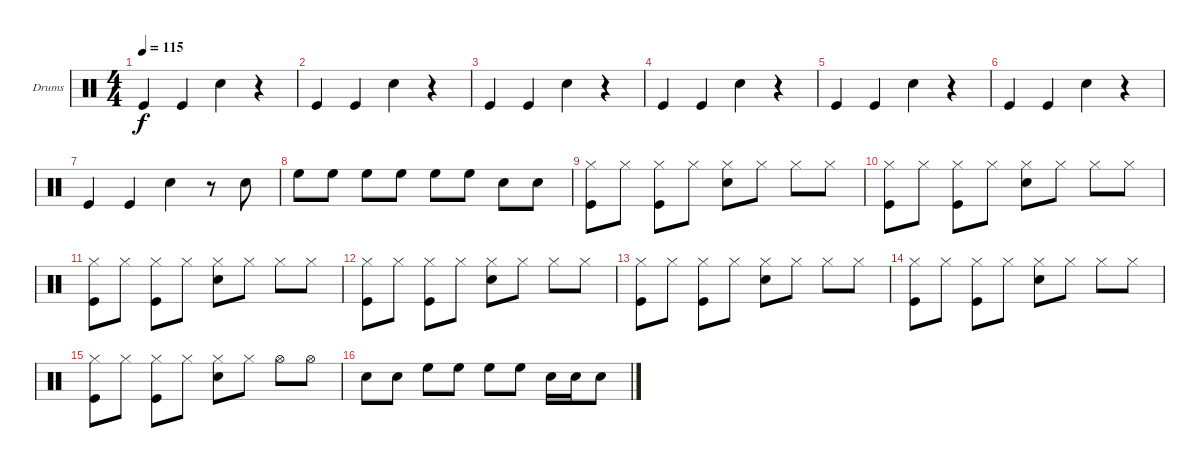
\bracketExtendMode groupsimilarinstruments
\firstSystemTrackNameOrientation horizontal
\otherSystemsTrackNameOrientation horizontal
\track ("Drumkit" "Drums") {instrument percussion}
\staff {score}
\articulation defaults
\ts (4 4)
\tempo 115
\clef neutral
\ks c "Kick (hit)".4{dy f} "Kick (hit)".4 "Snare (hit) 2".4
r.4 |
"Kick (hit)".4 "Kick (hit)".4 "Snare (hit) 2".4 r.4 |
"Kick (hit)".4 "Kick (hit)".4 "Snare (hit) 2".4 r.4 |
"Kick (hit)".4 "Kick (hit)".4 "Snare (hit) 2".4 r.4 |
"Kick (hit)".4 "Kick (hit)".4 "Snare (hit) 2".4 r.4 |
"Kick (hit)".4 "Kick (hit)".4 "Snare (hit) 2".4 r.4 |
"Kick (hit)".4 "Kick (hit)".4 "Snare (hit) 2".4 r.8 "Snare (hit) 2".8 |
"High Floor Tom (hit)".8 "High Floor Tom (hit)".8 "High Floor Tom (hit)".8 "High Floor Tom (hit)".8 "High Floor Tom (hit)".8 "High Floor Tom (hit)".8 "Snare (hit) 2".8 "Snare (hit) 2".8 |
("Hi-Hat (closed)" "Kick (hit)").8 "Hi-Hat (closed)".8 ("Hi-Hat (closed)" "Kick (hit)").8 "Hi-Hat (closed)".8 ("Hi-Hat (closed)" "Snare (hit) 2").8 "Hi-Hat (closed)".8 "Hi-Hat (closed)".8 "Hi-Hat (closed)".8 |
("Hi-Hat (closed)" "Kick (hit)").8 "Hi-Hat (closed)".8 ("Hi-Hat (closed)" "Kick (hit)").8 "Hi-Hat (closed)".8 ("Hi-Hat (closed)" "Snare (hit) 2").8 "Hi-Hat (closed)".8 "Hi-Hat (closed)".8 "Hi-Hat (closed)".8 |
("Hi-Hat (closed)" "Kick (hit)").8 "Hi-Hat (closed)".8 ("Hi-Hat (closed)" "Kick (hit)").8 "Hi-Hat (closed)".8 ("Hi-Hat (closed)" "Snare (hit) 2").8 "Hi-Hat (closed)".8 "Hi-Hat (closed)".8 "Hi-Hat (closed)".8 |
("Hi-Hat (closed)" "Kick (hit)").8 "Hi-Hat (closed)".8 ("Hi-Hat (closed)" "Kick (hit)").8 "Hi-Hat (closed)".8 ("Hi-Hat (closed)" "Snare (hit) 2").8 "Hi-Hat (closed)".8 "Hi-Hat (closed)".8 "Hi-Hat (closed)".8 |
("Hi-Hat (closed)" "Kick (hit)").8 "Hi-Hat (closed)".8 ("Hi-Hat (closed)" "Kick (hit)").8 "Hi-Hat (closed)".8 ("Hi-Hat (closed)" "Snare (hit) 2").8 "Hi-Hat (closed)".8 "Hi-Hat (closed)".8 "Hi-Hat (closed)".8 |
("Hi-Hat (closed)" "Kick (hit)").8 "Hi-Hat (closed)".8 ("Hi-Hat (closed)" "Kick (hit)").8 "Hi-Hat (closed)".8 ("Hi-Hat (closed)" "Snare (hit) 2").8 "Hi-Hat (closed)".8 "Hi-Hat (closed)".8 "Hi-Hat (closed)".8 |
("Hi-Hat (closed)" "Kick (hit)").8 "Hi-Hat (closed)".8 ("Hi-Hat (closed)" "Kick (hit)").8 "Hi-Hat (closed)".8 ("Hi-Hat (closed)" "Snare (hit) 2").8 "Hi-Hat (closed)".8 "Hi-Hat (open)".8 "Hi-Hat (open)".8 |
"Snare (hit) 2".8 "Snare (hit) 2".8 "High Floor Tom (hit)".8 "High Floor Tom (hit)".8 "High Floor Tom (hit)".8 "High Floor Tom (hit)".8 "Snare (hit) 2".16 "Snare (hit) 2".16 "Snare (hit) 2".8
